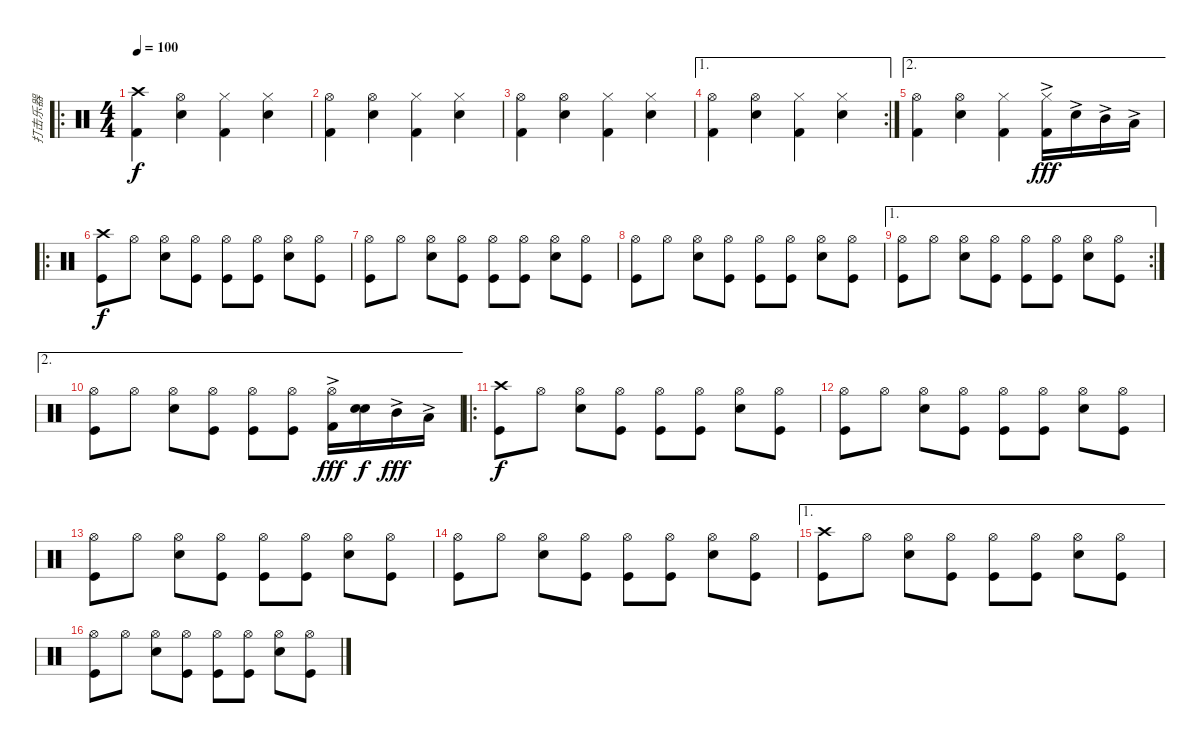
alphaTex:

\track ("打击乐器" "打击乐器") {instrument percussion}
\staff {score}
\articulation defaults
\ro
\ts (4 4)
\tempo 100
\clef neutral
\ks c
("Crash high (hit)" "Kick (hit) 2").4{dy f} ("Snare (hit) 2" "Hi-Hat (open)").4 ("Hi-Hat (closed)" "Kick (hit) 2").4 ("Hi-Hat (closed)" "Snare (hit) 2").4 |
("Hi-Hat (open)" "Kick (hit) 2").4 ("Snare (hit) 2" "Hi-Hat (open)").4 ("Hi-Hat (closed)" "Kick (hit) 2").4 ("Hi-Hat (closed)" "Snare (hit) 2").4 |
("Hi-Hat (open)" "Kick (hit) 2").4 ("Snare (hit) 2" "Hi-Hat (open)").4 ("Hi-Hat (closed)" "Kick (hit) 2").4 ("Hi-Hat (closed)" "Snare (hit) 2").4 |
\ae 1
\rc 2
("Hi-Hat (open)" "Kick (hit) 2").4 ("Snare (hit) 2" "Hi-Hat (open)").4 ("Hi-Hat (closed)" "Kick (hit) 2").4 ("Hi-Hat (closed)" "Snare (hit) 2").4 |
\ae 2
("Hi-Hat (open)" "Kick (hit) 2").4 ("Snare (hit) 2" "Hi-Hat (open)").4 ("Hi-Hat (closed)" "Kick (hit) 2").4 ("Hi-Hat (closed)" "Kick (hit) 2"{ac}).16{dy fff} "Snare (hit) 2"{ac}.16 "Mid Tom (hit)"{ac}.16 "Low Tom (hit)"{ac}.16 |
\ro
("Crash high (hit)" "Kick (hit)").8{dy f} "Hi-Hat (open)".8 ("Hi-Hat (open)" "Snare (hit) 2").8 ("Hi-Hat (open)" "Kick (hit)").8 ("Hi-Hat (open)" "Kick (hit)").8 ("Hi-Hat (open)" "Kick (hit)").8 ("Hi-Hat (open)" "Snare (hit) 2").8 ("Hi-Hat (open)" "Kick (hit)").8 |
("Hi-Hat (open)" "Kick (hit)").8 "Hi-Hat (open)".8 ("Hi-Hat (open)" "Snare (hit) 2").8 ("Hi-Hat (open)" "Kick (hit)").8 ("Hi-Hat (open)" "Kick (hit)").8 ("Hi-Hat (open)" "Kick (hit)").8 ("Hi-Hat (open)" "Snare (hit) 2").8 ("Hi-Hat (open)" "Kick (hit)").8 |
("Hi-Hat (open)" "Kick (hit)").8 "Hi-Hat (open)".8 ("Hi-Hat (open)" "Snare (hit) 2").8 ("Hi-Hat (open)" "Kick (hit)").8 ("Hi-Hat (open)" "Kick (hit)").8 ("Hi-Hat (open)" "Kick (hit)").8 ("Hi-Hat (open)" "Snare (hit) 2").8 ("Hi-Hat (open)" "Kick (hit)").8 |
\ae 1
\rc 2
("Hi-Hat (open)" "Kick (hit)").8 "Hi-Hat (open)".8 ("Hi-Hat (open)" "Snare (hit) 2").8 ("Hi-Hat (open)" "Kick (hit)").8 ("Hi-Hat (open)" "Kick (hit)").8 ("Hi-Hat (open)" "Kick (hit)").8 ("Hi-Hat (open)" "Snare (hit) 2").8 ("Hi-Hat (open)" "Kick (hit)").8 |
\ae 2
("Hi-Hat (open)" "Kick (hit)").8 "Hi-Hat (open)".8 ("Hi-Hat (open)" "Snare (hit) 2").8 ("Hi-Hat (open)" "Kick (hit)").8 ("Hi-Hat (open)" "Kick (hit)").8 ("Hi-Hat (open)" "Kick (hit)").8 ("Hi-Hat (open)" "Kick (hit) 2"{ac}).16{dy fff} ("Snare (hit) 2" "Snare (hit) 2").16{dy f} "Mid Tom (hit)"{ac}.16{dy fff} "Low Tom (hit)"{ac}.16 |
\ro
("Crash high (hit)" "Kick (hit)").8{dy f} "Hi-Hat (open)".8 ("Hi-Hat (open)" "Snare (hit) 2").8 ("Hi-Hat (open)" "Kick (hit)").8 ("Hi-Hat (open)" "Kick (hit)").8 ("Hi-Hat (open)" "Kick (hit)").8 ("Hi-Hat (open)" "Snare (hit) 2").8 ("Hi-Hat (open)" "Kick (hit)").8 |
("Hi-Hat (open)" "Kick (hit)").8 "Hi-Hat (open)".8 ("Hi-Hat (open)" "Snare (hit) 2").8 ("Hi-Hat (open)" "Kick (hit)").8 ("Hi-Hat (open)" "Kick (hit)").8 ("Hi-Hat (open)" "Kick (hit)").8 ("Hi-Hat (open)" "Snare (hit) 2").8 ("Hi-Hat (open)" "Kick (hit)").8 |
("Hi-Hat (open)" "Kick (hit)").8 "Hi-Hat (open)".8 ("Hi-Hat (open)" "Snare (hit) 2").8 ("Hi-Hat (open)" "Kick (hit)").8 ("Hi-Hat (open)" "Kick (hit)").8 ("Hi-Hat (open)" "Kick (hit)").8 ("Hi-Hat (open)" "Snare (hit) 2").8 ("Hi-Hat (open)" "Kick (hit)").8 |
("Hi-Hat (open)" "Kick (hit)").8 "Hi-Hat (open)".8 ("Hi-Hat (open)" "Snare (hit) 2").8 ("Hi-Hat (open)" "Kick (hit)").8 ("Hi-Hat (open)" "Kick (hit)").8 ("Hi-Hat (open)" "Kick (hit)").8 ("Hi-Hat (open)" "Snare (hit) 2").8 ("Hi-Hat (open)" "Kick (hit)").8 |
\ae 1
("Crash high (hit)" "Kick (hit)").8 "Hi-Hat (open)".8 ("Hi-Hat (open)" "Snare (hit) 2").8 ("Hi-Hat (open)" "Kick (hit)").8 ("Hi-Hat (open)" "Kick (hit)").8 ("Hi-Hat (open)" "Kick (hit)").8 ("Hi-Hat (open)" "Snare (hit) 2").8 ("Hi-Hat (open)" "Kick (hit)").8 |
("Hi-Hat (open)" "Kick (hit)").8 "Hi-Hat (open)".8 ("Hi-Hat (open)" "Snare (hit) 2").8 ("Hi-Hat (open)" "Kick (hit)").8 ("Hi-Hat (open)" "Kick (hit)").8 ("Hi-Hat (open)" "Kick (hit)").8 ("Hi-Hat (open)" "Snare (hit) 2").8 ("Hi-Hat (open)" "Kick (hit)").8
